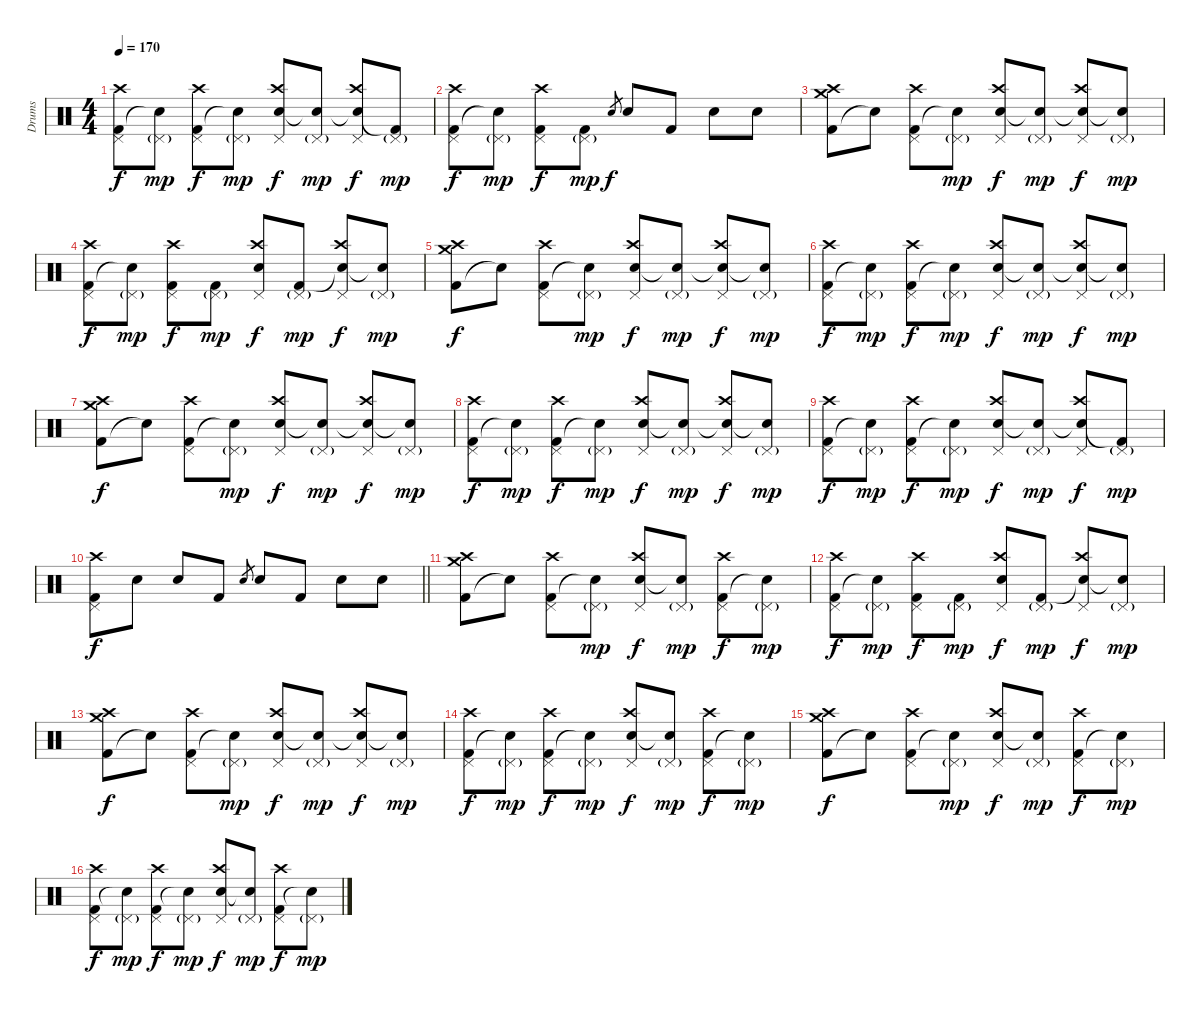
\track ("Drums" "Drums") {instrument percussion}
\staff {score}
\articulation defaults
\ts (4 4)
\tempo 170
\clef neutral
\ks c
("Kick (hit) 2" "Pedal Hi-Hat (hit)" "Crash high (hit)").8{dy f} ("Snare (hit)"{t} "Pedal Hi-Hat (hit)"{g}).8{dy mp} ("Kick (hit) 2" "Pedal Hi-Hat (hit)" "Crash high (hit)").8{dy f} ("Snare (hit)"{t} "Pedal Hi-Hat (hit)"{g}).8{dy mp} ("Electric Snare (hit)" "Pedal Hi-Hat (hit)" "Crash high (hit)").8{dy f} ("Snare (hit)"{t} "Pedal Hi-Hat (hit)"{g}).8{dy mp} ("Electric Snare (hit)"{t} "Pedal Hi-Hat (hit)" "Crash high (hit)").8{dy f} ("Kick (hit) 2"{t} "Pedal Hi-Hat (hit)"{g}).8{dy mp} |
("Kick (hit) 2" "Pedal Hi-Hat (hit)" "Crash high (hit)").8{dy f} ("Electric Snare (hit)"{t} "Pedal Hi-Hat (hit)"{g}).8{dy mp} ("Kick (hit) 2" "Pedal Hi-Hat (hit)" "Crash high (hit)").8{dy f} ("Kick (hit) 2" "Pedal Hi-Hat (hit)"{g}).8{dy mp} "Electric Snare (hit)".8{gr dy f} "Electric Snare (hit)".8 "Kick (hit) 2".8 "Electric Snare (hit)".8 "Electric Snare (hit)".8 |
("Kick (hit) 2" "Crash medium (hit)" "Crash high (hit)").8 "Snare (hit)"{t}.8 ("Kick (hit) 2" "Pedal Hi-Hat (hit)" "Crash high (hit)").8 ("Snare (hit)"{t} "Pedal Hi-Hat (hit)"{g}).8{dy mp} ("Electric Snare (hit)" "Pedal Hi-Hat (hit)" "Crash high (hit)").8{dy f} ("Snare (hit)"{t} "Pedal Hi-Hat (hit)"{g}).8{dy mp} ("Snare (hit)"{t} "Pedal Hi-Hat (hit)" "Crash high (hit)").8{dy f} ("Snare (hit)"{t} "Pedal Hi-Hat (hit)"{g}).8{dy mp} |
("Kick (hit) 2" "Pedal Hi-Hat (hit)" "Crash high (hit)").8{dy f} ("Snare (hit)"{t} "Pedal Hi-Hat (hit)"{g}).8{dy mp} ("Kick (hit) 2" "Pedal Hi-Hat (hit)" "Crash high (hit)").8{dy f} ("Kick (hit) 2" "Pedal Hi-Hat (hit)"{g}).8{dy mp} ("Electric Snare (hit)" "Pedal Hi-Hat (hit)" "Crash high (hit)").8{dy f} ("Kick (hit) 2" "Pedal Hi-Hat (hit)"{g}).8{dy mp} ("Snare (hit)"{t} "Pedal Hi-Hat (hit)" "Crash high (hit)").8{dy f} ("Snare (hit)"{t} "Pedal Hi-Hat (hit)"{g}).8{dy mp} |
("Kick (hit) 2" "Crash medium (hit)" "Crash high (hit)").8{dy f} "Snare (hit)"{t}.8 ("Kick (hit) 2" "Pedal Hi-Hat (hit)" "Crash high (hit)").8 ("Snare (hit)"{t} "Pedal Hi-Hat (hit)"{g}).8{dy mp} ("Electric Snare (hit)" "Pedal Hi-Hat (hit)" "Crash high (hit)").8{dy f} ("Snare (hit)"{t} "Pedal Hi-Hat (hit)"{g}).8{dy mp} ("Snare (hit)"{t} "Pedal Hi-Hat (hit)" "Crash high (hit)").8{dy f} ("Snare (hit)"{t} "Pedal Hi-Hat (hit)"{g}).8{dy mp} |
("Kick (hit) 2" "Pedal Hi-Hat (hit)" "Crash high (hit)").8{dy f} ("Snare (hit)"{t} "Pedal Hi-Hat (hit)"{g}).8{dy mp} ("Kick (hit) 2" "Pedal Hi-Hat (hit)" "Crash high (hit)").8{dy f} ("Snare (hit)"{t} "Pedal Hi-Hat (hit)"{g}).8{dy mp} ("Electric Snare (hit)" "Pedal Hi-Hat (hit)" "Crash high (hit)").8{dy f} ("Snare (hit)"{t} "Pedal Hi-Hat (hit)"{g}).8{dy mp} ("Snare (hit)"{t} "Pedal Hi-Hat (hit)" "Crash high (hit)").8{dy f} ("Snare (hit)"{t} "Pedal Hi-Hat (hit)"{g}).8{dy mp} |
("Kick (hit) 2" "Crash medium (hit)" "Crash high (hit)").8{dy f} "Snare (hit)"{t}.8 ("Kick (hit) 2" "Pedal Hi-Hat (hit)" "Crash high (hit)").8 ("Snare (hit)"{t} "Pedal Hi-Hat (hit)"{g}).8{dy mp} ("Electric Snare (hit)" "Pedal Hi-Hat (hit)" "Crash high (hit)").8{dy f} ("Snare (hit)"{t} "Pedal Hi-Hat (hit)"{g}).8{dy mp} ("Snare (hit)"{t} "Pedal Hi-Hat (hit)" "Crash high (hit)").8{dy f} ("Snare (hit)"{t} "Pedal Hi-Hat (hit)"{g}).8{dy mp} |
("Kick (hit) 2" "Pedal Hi-Hat (hit)" "Crash high (hit)").8{dy f} ("Snare (hit)"{t} "Pedal Hi-Hat (hit)"{g}).8{dy mp} ("Kick (hit) 2" "Pedal Hi-Hat (hit)" "Crash high (hit)").8{dy f} ("Snare (hit)"{t} "Pedal Hi-Hat (hit)"{g}).8{dy mp} ("Electric Snare (hit)" "Pedal Hi-Hat (hit)" "Crash high (hit)").8{dy f} ("Snare (hit)"{t} "Pedal Hi-Hat (hit)"{g}).8{dy mp} ("Snare (hit)"{t} "Pedal Hi-Hat (hit)" "Crash high (hit)").8{dy f} ("Snare (hit)"{t} "Pedal Hi-Hat (hit)"{g}).8{dy mp} |
("Kick (hit) 2" "Pedal Hi-Hat (hit)" "Crash high (hit)").8{dy f} ("Snare (hit)"{t} "Pedal Hi-Hat (hit)"{g}).8{dy mp} ("Kick (hit) 2" "Pedal Hi-Hat (hit)" "Crash high (hit)").8{dy f} ("Snare (hit)"{t} "Pedal Hi-Hat (hit)"{g}).8{dy mp} ("Electric Snare (hit)" "Pedal Hi-Hat (hit)" "Crash high (hit)").8{dy f} ("Snare (hit)"{t} "Pedal Hi-Hat (hit)"{g}).8{dy mp} ("Electric Snare (hit)"{t} "Pedal Hi-Hat (hit)" "Crash high (hit)").8{dy f} ("Kick (hit) 2"{t} "Pedal Hi-Hat (hit)"{g}).8{dy mp} |
\barLineRight lightlight
("Kick (hit) 2" "Pedal Hi-Hat (hit)" "Crash high (hit)").8{dy f} "Electric Snare (hit)".8 "Electric Snare (hit)".8 "Kick (hit) 2".8 "Electric Snare (hit)".8{gr} "Electric Snare (hit)".8 "Kick (hit) 2".8 "Electric Snare (hit)".8 "Electric Snare (hit)".8 |
("Kick (hit) 2" "Crash medium (hit)" "Crash high (hit)").8 "Snare (hit)"{t}.8 ("Kick (hit) 2" "Pedal Hi-Hat (hit)" "Crash high (hit)").8 ("Snare (hit)"{t} "Pedal Hi-Hat (hit)"{g}).8{dy mp} ("Electric Snare (hit)" "Pedal Hi-Hat (hit)" "Crash high (hit)").8{dy f} ("Snare (hit)"{t} "Pedal Hi-Hat (hit)"{g}).8{dy mp} ("Kick (hit) 2" "Pedal Hi-Hat (hit)" "Crash high (hit)").8{dy f} ("Snare (hit)"{t} "Pedal Hi-Hat (hit)"{g}).8{dy mp} |
("Kick (hit) 2" "Pedal Hi-Hat (hit)" "Crash high (hit)").8{dy f} ("Snare (hit)"{t} "Pedal Hi-Hat (hit)"{g}).8{dy mp} ("Kick (hit) 2" "Pedal Hi-Hat (hit)" "Crash high (hit)").8{dy f} ("Kick (hit) 2" "Pedal Hi-Hat (hit)"{g}).8{dy mp} ("Electric Snare (hit)" "Pedal Hi-Hat (hit)" "Crash high (hit)").8{dy f} ("Kick (hit) 2" "Pedal Hi-Hat (hit)"{g}).8{dy mp} ("Snare (hit)"{t} "Pedal Hi-Hat (hit)" "Crash high (hit)").8{dy f} ("Snare (hit)"{t} "Pedal Hi-Hat (hit)"{g}).8{dy mp} |
("Kick (hit) 2" "Crash medium (hit)" "Crash high (hit)").8{dy f} "Snare (hit)"{t}.8 ("Kick (hit) 2" "Pedal Hi-Hat (hit)" "Crash high (hit)").8 ("Snare (hit)"{t} "Pedal Hi-Hat (hit)"{g}).8{dy mp} ("Electric Snare (hit)" "Pedal Hi-Hat (hit)" "Crash high (hit)").8{dy f} ("Snare (hit)"{t} "Pedal Hi-Hat (hit)"{g}).8{dy mp} ("Snare (hit)"{t} "Pedal Hi-Hat (hit)" "Crash high (hit)").8{dy f} ("Snare (hit)"{t} "Pedal Hi-Hat (hit)"{g}).8{dy mp} |
("Kick (hit) 2" "Pedal Hi-Hat (hit)" "Crash high (hit)").8{dy f} ("Snare (hit)"{t} "Pedal Hi-Hat (hit)"{g}).8{dy mp} ("Kick (hit) 2" "Pedal Hi-Hat (hit)" "Crash high (hit)").8{dy f} ("Snare (hit)"{t} "Pedal Hi-Hat (hit)"{g}).8{dy mp} ("Electric Snare (hit)" "Pedal Hi-Hat (hit)" "Crash high (hit)").8{dy f} ("Snare (hit)"{t} "Pedal Hi-Hat (hit)"{g}).8{dy mp} ("Kick (hit) 2" "Pedal Hi-Hat (hit)" "Crash high (hit)").8{dy f} ("Snare (hit)"{t} "Pedal Hi-Hat (hit)"{g}).8{dy mp} |
("Kick (hit) 2" "Crash medium (hit)" "Crash high (hit)").8{dy f} "Snare (hit)"{t}.8 ("Kick (hit) 2" "Pedal Hi-Hat (hit)" "Crash high (hit)").8 ("Snare (hit)"{t} "Pedal Hi-Hat (hit)"{g}).8{dy mp} ("Electric Snare (hit)" "Pedal Hi-Hat (hit)" "Crash high (hit)").8{dy f} ("Snare (hit)"{t} "Pedal Hi-Hat (hit)"{g}).8{dy mp} ("Kick (hit) 2" "Pedal Hi-Hat (hit)" "Crash high (hit)").8{dy f} ("Snare (hit)"{t} "Pedal Hi-Hat (hit)"{g}).8{dy mp} |
("Kick (hit) 2" "Pedal Hi-Hat (hit)" "Crash high (hit)").8{dy f} ("Snare (hit)"{t} "Pedal Hi-Hat (hit)"{g}).8{dy mp} ("Kick (hit) 2" "Pedal Hi-Hat (hit)" "Crash high (hit)").8{dy f} ("Snare (hit)"{t} "Pedal Hi-Hat (hit)"{g}).8{dy mp} ("Electric Snare (hit)" "Pedal Hi-Hat (hit)" "Crash high (hit)").8{dy f} ("Snare (hit)"{t} "Pedal Hi-Hat (hit)"{g}).8{dy mp} ("Kick (hit) 2" "Pedal Hi-Hat (hit)" "Crash high (hit)").8{dy f} ("Snare (hit)"{t} "Pedal Hi-Hat (hit)"{g}).8{dy mp}
